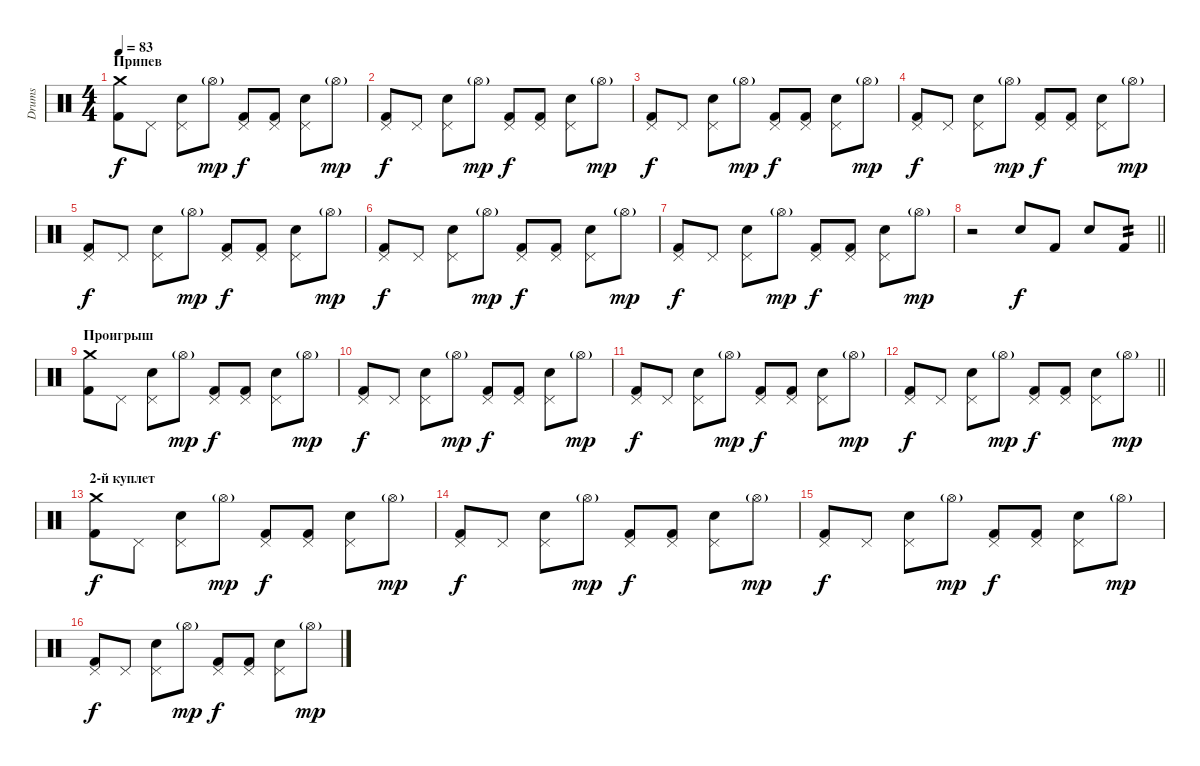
\track ("Drums" "Drums") {instrument percussion}
\staff {score}
\articulation defaults
\ts (4 4)
\section ("" "Припев")
\tempo 83
\clef neutral
\ks c
("Crash medium (hit)" "Kick (hit) 2").8{dy f} "Pedal Hi-Hat (hit)".8 ("Pedal Hi-Hat (hit)" "Electric Snare (hit)").8 "Hi-Hat (open)"{g}.8{dy mp} ("Pedal Hi-Hat (hit)" "Kick (hit) 2").8{dy f} ("Pedal Hi-Hat (hit)" "Kick (hit) 2").8 ("Pedal Hi-Hat (hit)" "Electric Snare (hit)").8 "Hi-Hat (open)"{g}.8{dy mp} |
("Pedal Hi-Hat (hit)" "Kick (hit) 2").8{dy f} "Pedal Hi-Hat (hit)".8 ("Pedal Hi-Hat (hit)" "Electric Snare (hit)").8 "Hi-Hat (open)"{g}.8{dy mp} ("Pedal Hi-Hat (hit)" "Kick (hit) 2").8{dy f} ("Pedal Hi-Hat (hit)" "Kick (hit) 2").8 ("Pedal Hi-Hat (hit)" "Electric Snare (hit)").8 "Hi-Hat (open)"{g}.8{dy mp} |
("Pedal Hi-Hat (hit)" "Kick (hit) 2").8{dy f} "Pedal Hi-Hat (hit)".8 ("Pedal Hi-Hat (hit)" "Electric Snare (hit)").8 "Hi-Hat (open)"{g}.8{dy mp} ("Pedal Hi-Hat (hit)" "Kick (hit) 2").8{dy f} ("Pedal Hi-Hat (hit)" "Kick (hit) 2").8 ("Pedal Hi-Hat (hit)" "Electric Snare (hit)").8 "Hi-Hat (open)"{g}.8{dy mp} |
("Pedal Hi-Hat (hit)" "Kick (hit) 2").8{dy f} "Pedal Hi-Hat (hit)".8 ("Pedal Hi-Hat (hit)" "Electric Snare (hit)").8 "Hi-Hat (open)"{g}.8{dy mp} ("Pedal Hi-Hat (hit)" "Kick (hit) 2").8{dy f} ("Pedal Hi-Hat (hit)" "Kick (hit) 2").8 ("Pedal Hi-Hat (hit)" "Electric Snare (hit)").8 "Hi-Hat (open)"{g}.8{dy mp} |
("Pedal Hi-Hat (hit)" "Kick (hit) 2").8{dy f} "Pedal Hi-Hat (hit)".8 ("Pedal Hi-Hat (hit)" "Electric Snare (hit)").8 "Hi-Hat (open)"{g}.8{dy mp} ("Pedal Hi-Hat (hit)" "Kick (hit) 2").8{dy f} ("Pedal Hi-Hat (hit)" "Kick (hit) 2").8 ("Pedal Hi-Hat (hit)" "Electric Snare (hit)").8 "Hi-Hat (open)"{g}.8{dy mp} |
("Pedal Hi-Hat (hit)" "Kick (hit) 2").8{dy f} "Pedal Hi-Hat (hit)".8 ("Pedal Hi-Hat (hit)" "Electric Snare (hit)").8 "Hi-Hat (open)"{g}.8{dy mp} ("Pedal Hi-Hat (hit)" "Kick (hit) 2").8{dy f} ("Pedal Hi-Hat (hit)" "Kick (hit) 2").8 ("Pedal Hi-Hat (hit)" "Electric Snare (hit)").8 "Hi-Hat (open)"{g}.8{dy mp} |
("Pedal Hi-Hat (hit)" "Kick (hit) 2").8{dy f} "Pedal Hi-Hat (hit)".8 ("Pedal Hi-Hat (hit)" "Electric Snare (hit)").8 "Hi-Hat (open)"{g}.8{dy mp} ("Pedal Hi-Hat (hit)" "Kick (hit) 2").8{dy f} ("Pedal Hi-Hat (hit)" "Kick (hit) 2").8 ("Pedal Hi-Hat (hit)" "Electric Snare (hit)").8 "Hi-Hat (open)"{g}.8{dy mp} |
\barLineRight lightlight
r.2 "Electric Snare (hit)".8{dy f} "Kick (hit) 2".8 "Electric Snare (hit)".8 "Kick (hit) 2".8{tp 2} |
\section ("" "Проигрыш")
("Crash medium (hit)" "Kick (hit) 2").8 "Pedal Hi-Hat (hit)".8 ("Pedal Hi-Hat (hit)" "Electric Snare (hit)").8 "Hi-Hat (open)"{g}.8{dy mp} ("Pedal Hi-Hat (hit)" "Kick (hit) 2").8{dy f} ("Pedal Hi-Hat (hit)" "Kick (hit) 2").8 ("Pedal Hi-Hat (hit)" "Electric Snare (hit)").8 "Hi-Hat (open)"{g}.8{dy mp} |
("Pedal Hi-Hat (hit)" "Kick (hit) 2").8{dy f} "Pedal Hi-Hat (hit)".8 ("Pedal Hi-Hat (hit)" "Electric Snare (hit)").8 "Hi-Hat (open)"{g}.8{dy mp} ("Pedal Hi-Hat (hit)" "Kick (hit) 2").8{dy f} ("Pedal Hi-Hat (hit)" "Kick (hit) 2").8 ("Pedal Hi-Hat (hit)" "Electric Snare (hit)").8 "Hi-Hat (open)"{g}.8{dy mp} |
("Pedal Hi-Hat (hit)" "Kick (hit) 2").8{dy f} "Pedal Hi-Hat (hit)".8 ("Pedal Hi-Hat (hit)" "Electric Snare (hit)").8 "Hi-Hat (open)"{g}.8{dy mp} ("Pedal Hi-Hat (hit)" "Kick (hit) 2").8{dy f} ("Pedal Hi-Hat (hit)" "Kick (hit) 2").8 ("Pedal Hi-Hat (hit)" "Electric Snare (hit)").8 "Hi-Hat (open)"{g}.8{dy mp} |
\barLineRight lightlight
("Pedal Hi-Hat (hit)" "Kick (hit) 2").8{dy f} "Pedal Hi-Hat (hit)".8 ("Pedal Hi-Hat (hit)" "Electric Snare (hit)").8 "Hi-Hat (open)"{g}.8{dy mp} ("Pedal Hi-Hat (hit)" "Kick (hit) 2").8{dy f} ("Pedal Hi-Hat (hit)" "Kick (hit) 2").8 ("Pedal Hi-Hat (hit)" "Electric Snare (hit)").8 "Hi-Hat (open)"{g}.8{dy mp} |
\section ("" "2-й куплет")
("Crash medium (hit)" "Kick (hit) 2").8{dy f} "Pedal Hi-Hat (hit)".8 ("Pedal Hi-Hat (hit)" "Electric Snare (hit)").8 "Hi-Hat (open)"{g}.8{dy mp} ("Pedal Hi-Hat (hit)" "Kick (hit) 2").8{dy f} ("Pedal Hi-Hat (hit)" "Kick (hit) 2").8 ("Pedal Hi-Hat (hit)" "Electric Snare (hit)").8 "Hi-Hat (open)"{g}.8{dy mp} |
("Pedal Hi-Hat (hit)" "Kick (hit) 2").8{dy f} "Pedal Hi-Hat (hit)".8 ("Pedal Hi-Hat (hit)" "Electric Snare (hit)").8 "Hi-Hat (open)"{g}.8{dy mp} ("Pedal Hi-Hat (hit)" "Kick (hit) 2").8{dy f} ("Pedal Hi-Hat (hit)" "Kick (hit) 2").8 ("Pedal Hi-Hat (hit)" "Electric Snare (hit)").8 "Hi-Hat (open)"{g}.8{dy mp} |
("Pedal Hi-Hat (hit)" "Kick (hit) 2").8{dy f} "Pedal Hi-Hat (hit)".8 ("Pedal Hi-Hat (hit)" "Electric Snare (hit)").8 "Hi-Hat (open)"{g}.8{dy mp} ("Pedal Hi-Hat (hit)" "Kick (hit) 2").8{dy f} ("Pedal Hi-Hat (hit)" "Kick (hit) 2").8 ("Pedal Hi-Hat (hit)" "Electric Snare (hit)").8 "Hi-Hat (open)"{g}.8{dy mp} |
("Pedal Hi-Hat (hit)" "Kick (hit) 2").8{dy f} "Pedal Hi-Hat (hit)".8 ("Pedal Hi-Hat (hit)" "Electric Snare (hit)").8 "Hi-Hat (open)"{g}.8{dy mp} ("Pedal Hi-Hat (hit)" "Kick (hit) 2").8{dy f} ("Pedal Hi-Hat (hit)" "Kick (hit) 2").8 ("Pedal Hi-Hat (hit)" "Electric Snare (hit)").8 "Hi-Hat (open)"{g}.8{dy mp}
